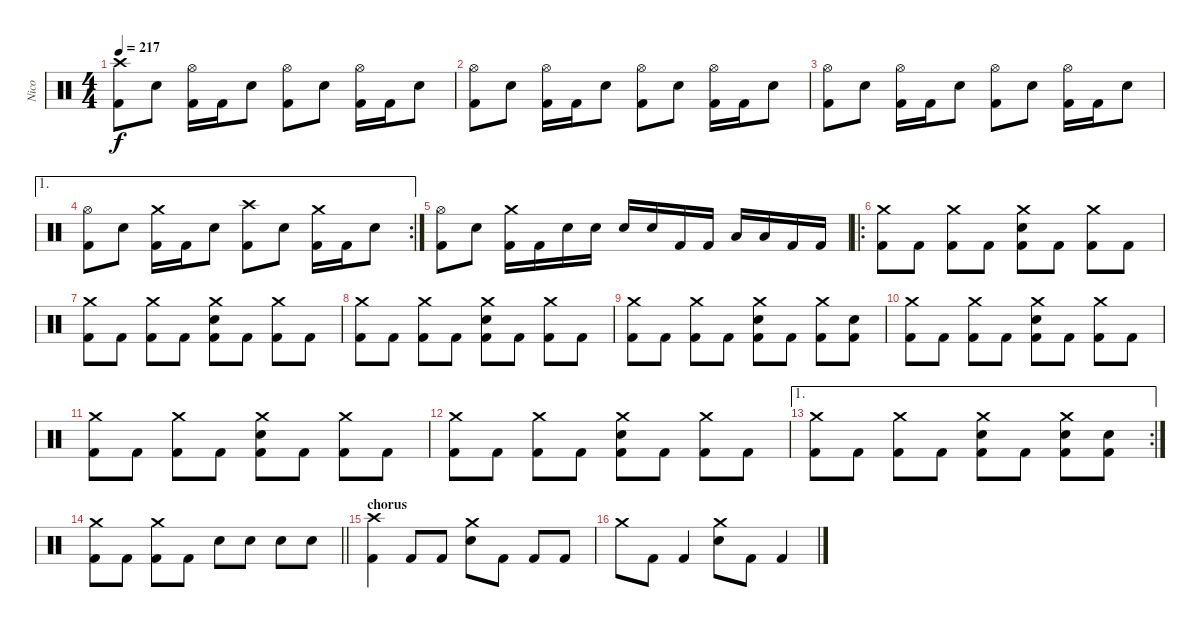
\track ("Nico" "Nico") {instrument percussion}
\staff {score}
\articulation defaults
\ts (4 4)
\tempo 217
\clef neutral
\ks c
("Crash high (hit)" "Kick (hit) 2").8{dy f} "Electric Snare (hit)".8 ("Hi-Hat (open)" "Kick (hit) 2").16 "Kick (hit) 2".16 "Electric Snare (hit)".8 ("Hi-Hat (open)" "Kick (hit) 2").8 "Electric Snare (hit)".8 ("Hi-Hat (open)" "Kick (hit) 2").16 "Kick (hit) 2".16 "Electric Snare (hit)".8 |
("Hi-Hat (open)" "Kick (hit) 2").8 "Electric Snare (hit)".8 ("Hi-Hat (open)" "Kick (hit) 2").16 "Kick (hit) 2".16 "Electric Snare (hit)".8 ("Hi-Hat (open)" "Kick (hit) 2").8 "Electric Snare (hit)".8 ("Hi-Hat (open)" "Kick (hit) 2").16 "Kick (hit) 2".16 "Electric Snare (hit)".8 |
("Hi-Hat (open)" "Kick (hit) 2").8 "Electric Snare (hit)".8 ("Hi-Hat (open)" "Kick (hit) 2").16 "Kick (hit) 2".16 "Electric Snare (hit)".8 ("Hi-Hat (open)" "Kick (hit) 2").8 "Electric Snare (hit)".8 ("Hi-Hat (open)" "Kick (hit) 2").16 "Kick (hit) 2".16 "Electric Snare (hit)".8 |
\ae 1
\rc 2
("Hi-Hat (open)" "Kick (hit) 2").8 "Electric Snare (hit)".8 ("Crash medium (hit)" "Kick (hit) 2").16 "Kick (hit) 2".16 "Electric Snare (hit)".8 ("Crash high (hit)" "Kick (hit) 2").8 "Electric Snare (hit)".8 ("Crash medium (hit)" "Kick (hit) 2").16 "Kick (hit) 2".16 "Electric Snare (hit)".8 |
("Hi-Hat (open)" "Kick (hit) 2").8 "Electric Snare (hit)".8 ("Crash medium (hit)" "Kick (hit) 2").16 "Kick (hit) 2".16 "Electric Snare (hit)".16 "Electric Snare (hit)".16 "Electric Snare (hit)".16 "Electric Snare (hit)".16 "Kick (hit) 2".16 "Kick (hit) 2".16 "Low Tom (hit)".16 "Low Tom (hit)".16 "Kick (hit) 2".16 "Kick (hit) 2".16 |
\ro
("Crash medium (hit)" "Kick (hit) 2").8 "Kick (hit) 2".8 ("Crash medium (hit)" "Kick (hit) 2").8 "Kick (hit) 2".8 ("Crash medium (hit)" "Electric Snare (hit)" "Kick (hit) 2").8 "Kick (hit) 2".8 ("Crash medium (hit)" "Kick (hit) 2").8 "Kick (hit) 2".8 |
("Crash medium (hit)" "Kick (hit) 2").8 "Kick (hit) 2".8 ("Crash medium (hit)" "Kick (hit) 2").8 "Kick (hit) 2".8 ("Crash medium (hit)" "Electric Snare (hit)" "Kick (hit) 2").8 "Kick (hit) 2".8 ("Crash medium (hit)" "Kick (hit) 2").8 "Kick (hit) 2".8 |
("Crash medium (hit)" "Kick (hit) 2").8 "Kick (hit) 2".8 ("Crash medium (hit)" "Kick (hit) 2").8 "Kick (hit) 2".8 ("Crash medium (hit)" "Electric Snare (hit)" "Kick (hit) 2").8 "Kick (hit) 2".8 ("Crash medium (hit)" "Kick (hit) 2").8 "Kick (hit) 2".8 |
("Crash medium (hit)" "Kick (hit) 2").8 "Kick (hit) 2".8 ("Crash medium (hit)" "Kick (hit) 2").8 "Kick (hit) 2".8 ("Crash medium (hit)" "Electric Snare (hit)" "Kick (hit) 2").8 "Kick (hit) 2".8 ("Crash medium (hit)" "Kick (hit) 2").8 ("Electric Snare (hit)" "Kick (hit) 2").8 |
("Crash medium (hit)" "Kick (hit) 2").8 "Kick (hit) 2".8 ("Crash medium (hit)" "Kick (hit) 2").8 "Kick (hit) 2".8 ("Crash medium (hit)" "Electric Snare (hit)" "Kick (hit) 2").8 "Kick (hit) 2".8 ("Crash medium (hit)" "Kick (hit) 2").8 "Kick (hit) 2".8 |
("Crash medium (hit)" "Kick (hit) 2").8 "Kick (hit) 2".8 ("Crash medium (hit)" "Kick (hit) 2").8 "Kick (hit) 2".8 ("Crash medium (hit)" "Electric Snare (hit)" "Kick (hit) 2").8 "Kick (hit) 2".8 ("Crash medium (hit)" "Kick (hit) 2").8 "Kick (hit) 2".8 |
("Crash medium (hit)" "Kick (hit) 2").8 "Kick (hit) 2".8 ("Crash medium (hit)" "Kick (hit) 2").8 "Kick (hit) 2".8 ("Crash medium (hit)" "Electric Snare (hit)" "Kick (hit) 2").8 "Kick (hit) 2".8 ("Crash medium (hit)" "Kick (hit) 2").8 "Kick (hit) 2".8 |
\ae 1
\rc 2
("Crash medium (hit)" "Kick (hit) 2").8 "Kick (hit) 2".8 ("Crash medium (hit)" "Kick (hit) 2").8 "Kick (hit) 2".8 ("Crash medium (hit)" "Electric Snare (hit)" "Kick (hit) 2").8 "Kick (hit) 2".8 ("Crash medium (hit)" "Electric Snare (hit)" "Kick (hit) 2").8 ("Electric Snare (hit)" "Kick (hit) 2").8 |
\barLineRight lightlight
("Crash medium (hit)" "Kick (hit) 2").8 "Kick (hit) 2".8 ("Crash medium (hit)" "Kick (hit) 2").8 "Kick (hit) 2".8 "Electric Snare (hit)".8 "Electric Snare (hit)".8 "Electric Snare (hit)".8 "Electric Snare (hit)".8 |
\section ("" "chorus")
("Crash high (hit)" "Kick (hit) 2").4 "Kick (hit) 2".8 "Kick (hit) 2".8 ("Crash medium (hit)" "Electric Snare (hit)").8 "Kick (hit) 2".8 "Kick (hit) 2".8 "Kick (hit) 2".8 |
"Crash medium (hit)".8 "Kick (hit) 2".8 "Kick (hit) 2".4 ("Crash medium (hit)" "Electric Snare (hit)").8 "Kick (hit) 2".8 "Kick (hit) 2".4
